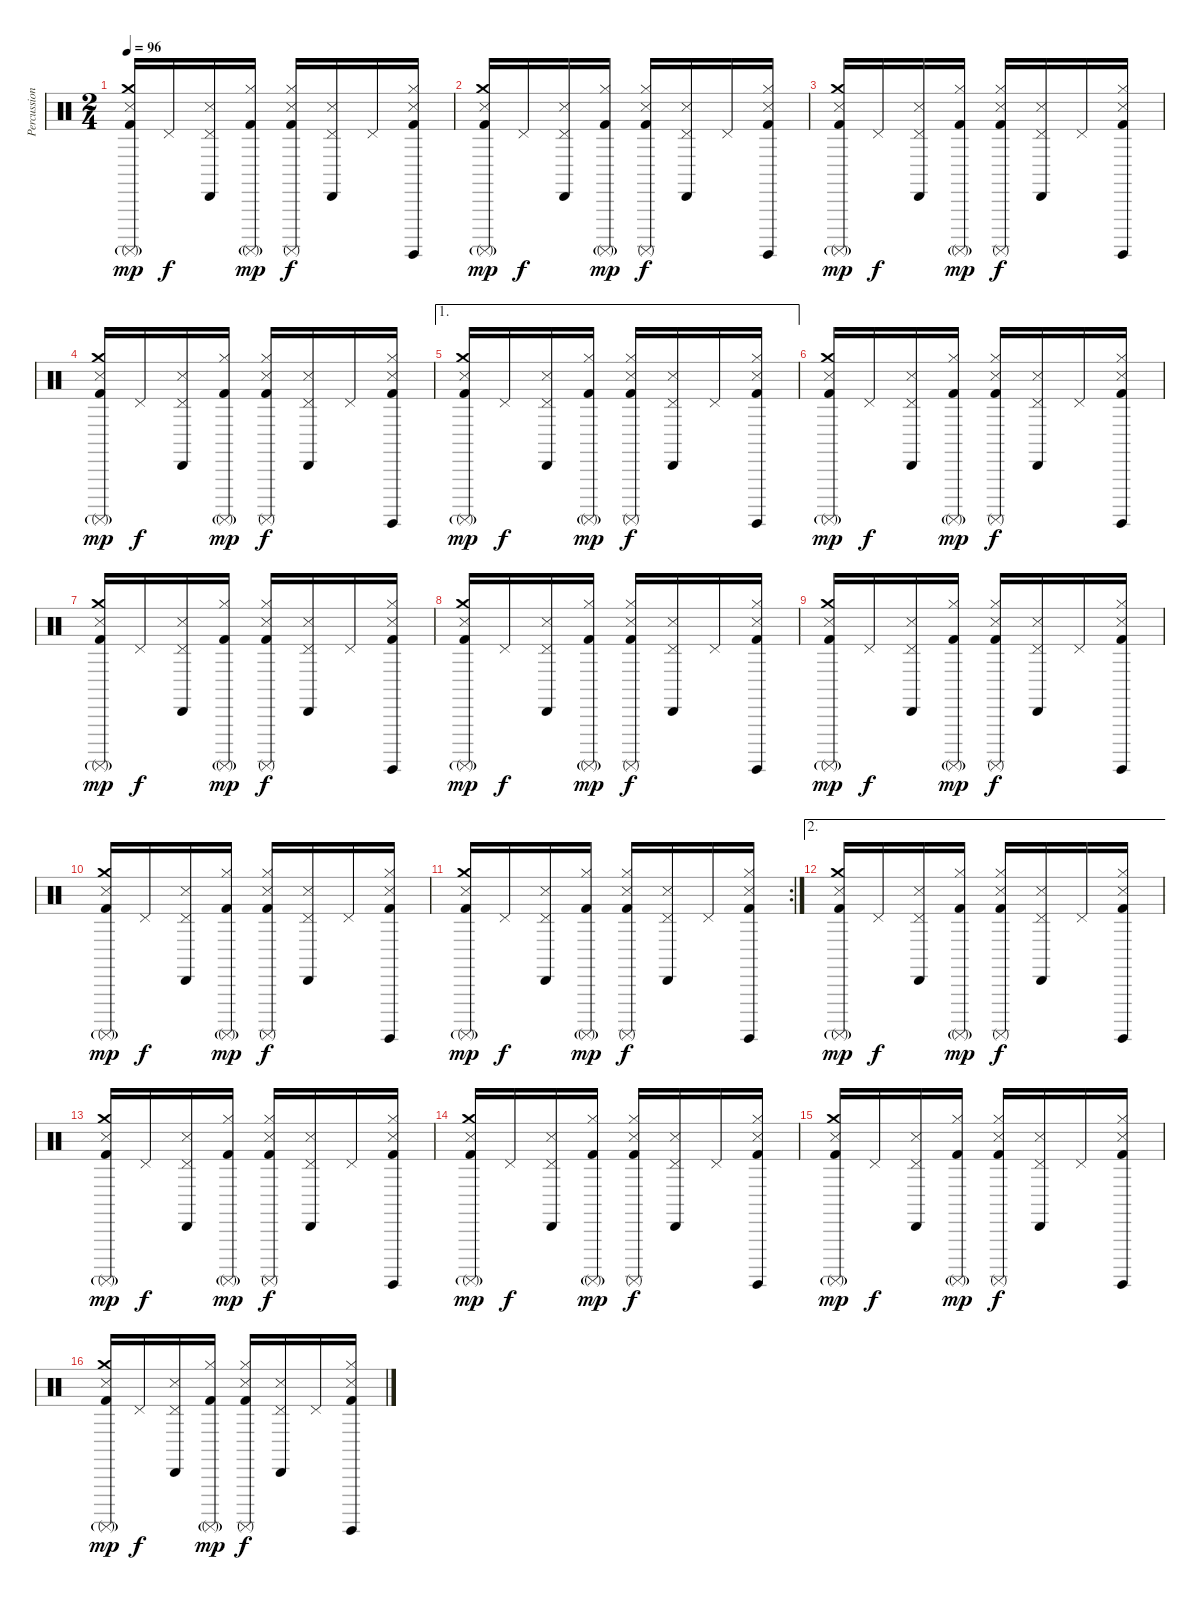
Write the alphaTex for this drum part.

\track ("Percussion" "Percussion") {instrument percussion}
\staff {score}
\articulation defaults
\ts (2 4)
\tempo 96
\clef neutral
\ks c
("Crash medium (hit)" "Snare (side stick) 3" "Surdo (mute)"{g} "Kick (hit) 2").16{dy mp volume 12} "Pedal Hi-Hat (hit)".16{dy f} ("Pedal Hi-Hat (hit)" "Cabasa (hit)" "Snare (side stick) 3").16 ("Hi-Hat (closed)" "Surdo (mute)"{g} "Kick (hit) 2").16{dy mp} ("Hi-Hat (closed)" "Snare (side stick) 3" "Surdo (mute)" "Kick (hit) 2").16{dy f} ("Pedal Hi-Hat (hit)" "Cabasa (hit)" "Snare (side stick) 3").16 "Pedal Hi-Hat (hit)".16 ("Hi-Hat (closed)" "Snare (side stick) 3" "Surdo (hit)" "Kick (hit) 2").16 |
("Crash medium (hit)" "Snare (side stick) 3" "Surdo (mute)"{g} "Kick (hit) 2").16{dy mp volume 12} "Pedal Hi-Hat (hit)".16{dy f} ("Pedal Hi-Hat (hit)" "Cabasa (hit)" "Snare (side stick) 3").16 ("Hi-Hat (closed)" "Surdo (mute)"{g} "Kick (hit) 2").16{dy mp} ("Hi-Hat (closed)" "Snare (side stick) 3" "Surdo (mute)" "Kick (hit) 2").16{dy f} ("Pedal Hi-Hat (hit)" "Cabasa (hit)" "Snare (side stick) 3").16 "Pedal Hi-Hat (hit)".16 ("Hi-Hat (closed)" "Snare (side stick) 3" "Surdo (hit)" "Kick (hit) 2").16 |
("Crash medium (hit)" "Snare (side stick) 3" "Surdo (mute)"{g} "Kick (hit) 2").16{dy mp volume 12} "Pedal Hi-Hat (hit)".16{dy f} ("Pedal Hi-Hat (hit)" "Cabasa (hit)" "Snare (side stick) 3").16 ("Hi-Hat (closed)" "Surdo (mute)"{g} "Kick (hit) 2").16{dy mp} ("Hi-Hat (closed)" "Snare (side stick) 3" "Surdo (mute)" "Kick (hit) 2").16{dy f} ("Pedal Hi-Hat (hit)" "Cabasa (hit)" "Snare (side stick) 3").16 "Pedal Hi-Hat (hit)".16 ("Hi-Hat (closed)" "Snare (side stick) 3" "Surdo (hit)" "Kick (hit) 2").16 |
("Crash medium (hit)" "Snare (side stick) 3" "Surdo (mute)"{g} "Kick (hit) 2").16{dy mp volume 12} "Pedal Hi-Hat (hit)".16{dy f} ("Pedal Hi-Hat (hit)" "Cabasa (hit)" "Snare (side stick) 3").16 ("Hi-Hat (closed)" "Surdo (mute)"{g} "Kick (hit) 2").16{dy mp} ("Hi-Hat (closed)" "Snare (side stick) 3" "Surdo (mute)" "Kick (hit) 2").16{dy f} ("Pedal Hi-Hat (hit)" "Cabasa (hit)" "Snare (side stick) 3").16 "Pedal Hi-Hat (hit)".16 ("Hi-Hat (closed)" "Snare (side stick) 3" "Surdo (hit)" "Kick (hit) 2").16 |
\ae 1
("Crash medium (hit)" "Snare (side stick) 3" "Surdo (mute)"{g} "Kick (hit) 2").16{dy mp volume 12} "Pedal Hi-Hat (hit)".16{dy f} ("Pedal Hi-Hat (hit)" "Cabasa (hit)" "Snare (side stick) 3").16 ("Hi-Hat (closed)" "Surdo (mute)"{g} "Kick (hit) 2").16{dy mp} ("Hi-Hat (closed)" "Snare (side stick) 3" "Surdo (mute)" "Kick (hit) 2").16{dy f} ("Pedal Hi-Hat (hit)" "Cabasa (hit)" "Snare (side stick) 3").16 "Pedal Hi-Hat (hit)".16 ("Hi-Hat (closed)" "Snare (side stick) 3" "Surdo (hit)" "Kick (hit) 2").16 |
("Crash medium (hit)" "Snare (side stick) 3" "Surdo (mute)"{g} "Kick (hit) 2").16{dy mp volume 12} "Pedal Hi-Hat (hit)".16{dy f} ("Pedal Hi-Hat (hit)" "Cabasa (hit)" "Snare (side stick) 3").16 ("Hi-Hat (closed)" "Surdo (mute)"{g} "Kick (hit) 2").16{dy mp} ("Hi-Hat (closed)" "Snare (side stick) 3" "Surdo (mute)" "Kick (hit) 2").16{dy f} ("Pedal Hi-Hat (hit)" "Cabasa (hit)" "Snare (side stick) 3").16 "Pedal Hi-Hat (hit)".16 ("Hi-Hat (closed)" "Snare (side stick) 3" "Surdo (hit)" "Kick (hit) 2").16 |
("Crash medium (hit)" "Snare (side stick) 3" "Surdo (mute)"{g} "Kick (hit) 2").16{dy mp volume 12} "Pedal Hi-Hat (hit)".16{dy f} ("Pedal Hi-Hat (hit)" "Cabasa (hit)" "Snare (side stick) 3").16 ("Hi-Hat (closed)" "Surdo (mute)"{g} "Kick (hit) 2").16{dy mp} ("Hi-Hat (closed)" "Snare (side stick) 3" "Surdo (mute)" "Kick (hit) 2").16{dy f} ("Pedal Hi-Hat (hit)" "Cabasa (hit)" "Snare (side stick) 3").16 "Pedal Hi-Hat (hit)".16 ("Hi-Hat (closed)" "Snare (side stick) 3" "Surdo (hit)" "Kick (hit) 2").16 |
("Crash medium (hit)" "Snare (side stick) 3" "Surdo (mute)"{g} "Kick (hit) 2").16{dy mp volume 12} "Pedal Hi-Hat (hit)".16{dy f} ("Pedal Hi-Hat (hit)" "Cabasa (hit)" "Snare (side stick) 3").16 ("Hi-Hat (closed)" "Surdo (mute)"{g} "Kick (hit) 2").16{dy mp} ("Hi-Hat (closed)" "Snare (side stick) 3" "Surdo (mute)" "Kick (hit) 2").16{dy f} ("Pedal Hi-Hat (hit)" "Cabasa (hit)" "Snare (side stick) 3").16 "Pedal Hi-Hat (hit)".16 ("Hi-Hat (closed)" "Snare (side stick) 3" "Surdo (hit)" "Kick (hit) 2").16 |
("Crash medium (hit)" "Snare (side stick) 3" "Surdo (mute)"{g} "Kick (hit) 2").16{dy mp volume 12} "Pedal Hi-Hat (hit)".16{dy f} ("Pedal Hi-Hat (hit)" "Cabasa (hit)" "Snare (side stick) 3").16 ("Hi-Hat (closed)" "Surdo (mute)"{g} "Kick (hit) 2").16{dy mp} ("Hi-Hat (closed)" "Snare (side stick) 3" "Surdo (mute)" "Kick (hit) 2").16{dy f} ("Pedal Hi-Hat (hit)" "Cabasa (hit)" "Snare (side stick) 3").16 "Pedal Hi-Hat (hit)".16 ("Hi-Hat (closed)" "Snare (side stick) 3" "Surdo (hit)" "Kick (hit) 2").16 |
("Crash medium (hit)" "Snare (side stick) 3" "Surdo (mute)"{g} "Kick (hit) 2").16{dy mp volume 12} "Pedal Hi-Hat (hit)".16{dy f} ("Pedal Hi-Hat (hit)" "Cabasa (hit)" "Snare (side stick) 3").16 ("Hi-Hat (closed)" "Surdo (mute)"{g} "Kick (hit) 2").16{dy mp} ("Hi-Hat (closed)" "Snare (side stick) 3" "Surdo (mute)" "Kick (hit) 2").16{dy f} ("Pedal Hi-Hat (hit)" "Cabasa (hit)" "Snare (side stick) 3").16 "Pedal Hi-Hat (hit)".16 ("Hi-Hat (closed)" "Snare (side stick) 3" "Surdo (hit)" "Kick (hit) 2").16 |
\rc 2
("Crash medium (hit)" "Snare (side stick) 3" "Surdo (mute)"{g} "Kick (hit) 2").16{dy mp volume 12} "Pedal Hi-Hat (hit)".16{dy f} ("Pedal Hi-Hat (hit)" "Cabasa (hit)" "Snare (side stick) 3").16 ("Hi-Hat (closed)" "Surdo (mute)"{g} "Kick (hit) 2").16{dy mp} ("Hi-Hat (closed)" "Snare (side stick) 3" "Surdo (mute)" "Kick (hit) 2").16{dy f} ("Pedal Hi-Hat (hit)" "Cabasa (hit)" "Snare (side stick) 3").16 "Pedal Hi-Hat (hit)".16 ("Hi-Hat (closed)" "Snare (side stick) 3" "Surdo (hit)" "Kick (hit) 2").16 |
\ae 2
("Crash medium (hit)" "Snare (side stick) 3" "Surdo (mute)"{g} "Kick (hit) 2").16{dy mp volume 12} "Pedal Hi-Hat (hit)".16{dy f} ("Pedal Hi-Hat (hit)" "Cabasa (hit)" "Snare (side stick) 3").16 ("Hi-Hat (closed)" "Surdo (mute)"{g} "Kick (hit) 2").16{dy mp} ("Hi-Hat (closed)" "Snare (side stick) 3" "Surdo (mute)" "Kick (hit) 2").16{dy f} ("Pedal Hi-Hat (hit)" "Cabasa (hit)" "Snare (side stick) 3").16 "Pedal Hi-Hat (hit)".16 ("Hi-Hat (closed)" "Snare (side stick) 3" "Surdo (hit)" "Kick (hit) 2").16 |
("Crash medium (hit)" "Snare (side stick) 3" "Surdo (mute)"{g} "Kick (hit) 2").16{dy mp volume 12} "Pedal Hi-Hat (hit)".16{dy f} ("Pedal Hi-Hat (hit)" "Cabasa (hit)" "Snare (side stick) 3").16 ("Hi-Hat (closed)" "Surdo (mute)"{g} "Kick (hit) 2").16{dy mp} ("Hi-Hat (closed)" "Snare (side stick) 3" "Surdo (mute)" "Kick (hit) 2").16{dy f} ("Pedal Hi-Hat (hit)" "Cabasa (hit)" "Snare (side stick) 3").16 "Pedal Hi-Hat (hit)".16 ("Hi-Hat (closed)" "Snare (side stick) 3" "Surdo (hit)" "Kick (hit) 2").16 |
("Crash medium (hit)" "Snare (side stick) 3" "Surdo (mute)"{g} "Kick (hit) 2").16{dy mp volume 12} "Pedal Hi-Hat (hit)".16{dy f} ("Pedal Hi-Hat (hit)" "Cabasa (hit)" "Snare (side stick) 3").16 ("Hi-Hat (closed)" "Surdo (mute)"{g} "Kick (hit) 2").16{dy mp} ("Hi-Hat (closed)" "Snare (side stick) 3" "Surdo (mute)" "Kick (hit) 2").16{dy f} ("Pedal Hi-Hat (hit)" "Cabasa (hit)" "Snare (side stick) 3").16 "Pedal Hi-Hat (hit)".16 ("Hi-Hat (closed)" "Snare (side stick) 3" "Surdo (hit)" "Kick (hit) 2").16 |
("Crash medium (hit)" "Snare (side stick) 3" "Surdo (mute)"{g} "Kick (hit) 2").16{dy mp volume 12} "Pedal Hi-Hat (hit)".16{dy f} ("Pedal Hi-Hat (hit)" "Cabasa (hit)" "Snare (side stick) 3").16 ("Hi-Hat (closed)" "Surdo (mute)"{g} "Kick (hit) 2").16{dy mp} ("Hi-Hat (closed)" "Snare (side stick) 3" "Surdo (mute)" "Kick (hit) 2").16{dy f} ("Pedal Hi-Hat (hit)" "Cabasa (hit)" "Snare (side stick) 3").16 "Pedal Hi-Hat (hit)".16 ("Hi-Hat (closed)" "Snare (side stick) 3" "Surdo (hit)" "Kick (hit) 2").16 |
("Crash medium (hit)" "Snare (side stick) 3" "Surdo (mute)"{g} "Kick (hit) 2").16{dy mp volume 12} "Pedal Hi-Hat (hit)".16{dy f} ("Pedal Hi-Hat (hit)" "Cabasa (hit)" "Snare (side stick) 3").16 ("Hi-Hat (closed)" "Surdo (mute)"{g} "Kick (hit) 2").16{dy mp} ("Hi-Hat (closed)" "Snare (side stick) 3" "Surdo (mute)" "Kick (hit) 2").16{dy f} ("Pedal Hi-Hat (hit)" "Cabasa (hit)" "Snare (side stick) 3").16 "Pedal Hi-Hat (hit)".16 ("Hi-Hat (closed)" "Snare (side stick) 3" "Surdo (hit)" "Kick (hit) 2").16
